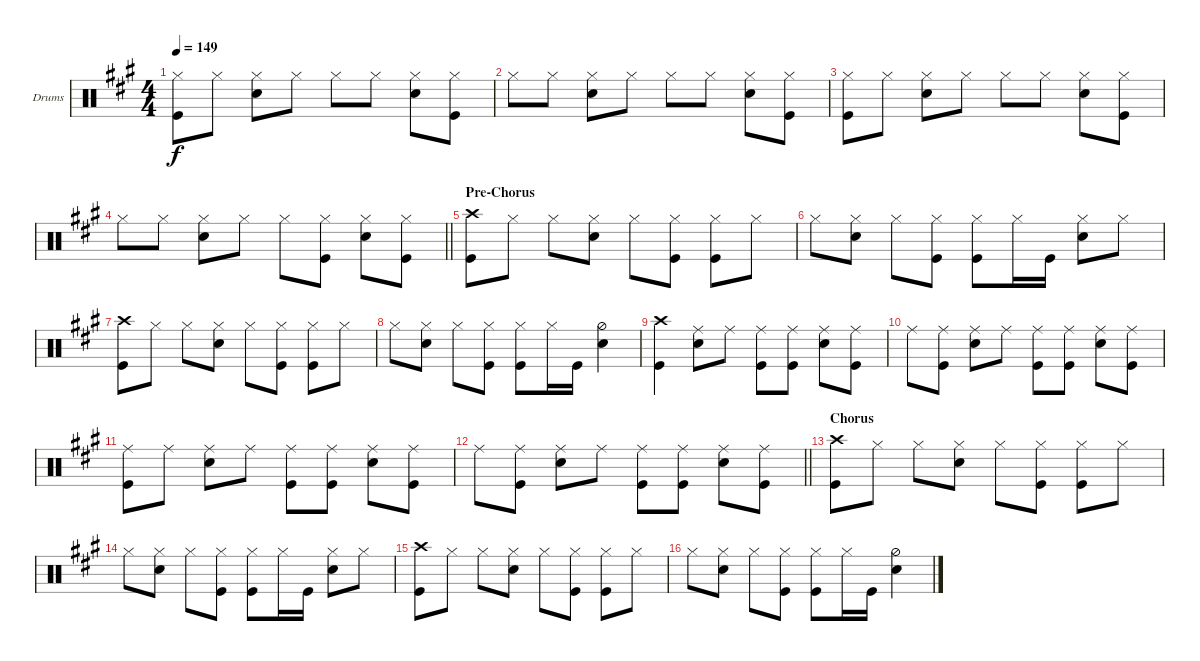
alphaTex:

\defaultSystemsLayout 4
\bracketExtendMode groupsimilarinstruments
\firstSystemTrackNameOrientation horizontal
\otherSystemsTrackNameOrientation horizontal
\track ("Drums" "Drums") {instrument percussion}
\staff {score}
\articulation defaults
\ts (4 4)
\tempo 149
\clef neutral
\ks a
("Kick (hit)" "Hi-Hat (closed)").8{dy f} "Hi-Hat (closed)".8 ("Hi-Hat (closed)" "Snare (hit) 2").8 "Hi-Hat (closed)".8 "Hi-Hat (closed)".8 "Hi-Hat (closed)".8 ("Hi-Hat (closed)" "Snare (hit) 2").8 ("Hi-Hat (closed)" "Kick (hit)").8 |
"Hi-Hat (closed)".8 "Hi-Hat (closed)".8 ("Hi-Hat (closed)" "Snare (hit) 2").8 "Hi-Hat (closed)".8 "Hi-Hat (closed)".8 "Hi-Hat (closed)".8 ("Hi-Hat (closed)" "Snare (hit) 2").8 ("Hi-Hat (closed)" "Kick (hit)").8 |
("Kick (hit)" "Hi-Hat (closed)").8 "Hi-Hat (closed)".8 ("Hi-Hat (closed)" "Snare (hit) 2").8 "Hi-Hat (closed)".8 "Hi-Hat (closed)".8 "Hi-Hat (closed)".8 ("Hi-Hat (closed)" "Snare (hit) 2").8 ("Hi-Hat (closed)" "Kick (hit)").8 |
\barLineRight lightlight "Hi-Hat (closed)".8 "Hi-Hat (closed)".8
("Hi-Hat (closed)" "Snare (hit) 2").8 "Hi-Hat (closed)".8 "Hi-Hat (closed)".8 ("Hi-Hat (closed)" "Kick (hit)").8 ("Hi-Hat (closed)" "Snare (hit) 2").8 ("Hi-Hat (closed)" "Kick (hit)").8 |
\section ("" "Pre-Chorus")
("Kick (hit)" "Crash high (hit)").8 "Hi-Hat (closed)".8 "Hi-Hat (closed)".8 ("Hi-Hat (closed)" "Snare (hit) 2").8 "Hi-Hat (closed)".8 ("Hi-Hat (closed)" "Kick (hit)").8 ("Hi-Hat (closed)" "Kick (hit)").8 "Hi-Hat (closed)".8 |
"Hi-Hat (closed)".8 ("Hi-Hat (closed)" "Snare (hit) 2").8 "Hi-Hat (closed)".8 ("Hi-Hat (closed)" "Kick (hit)").8 ("Hi-Hat (closed)" "Kick (hit)").8 "Hi-Hat (closed)".16 "Kick (hit)".16 ("Hi-Hat (closed)" "Snare (hit) 2").8 "Hi-Hat (closed)".8 |
("Kick (hit)" "Crash high (hit)").8 "Hi-Hat (closed)".8 "Hi-Hat (closed)".8 ("Hi-Hat (closed)" "Snare (hit) 2").8 "Hi-Hat (closed)".8 ("Hi-Hat (closed)" "Kick (hit)").8 ("Hi-Hat (closed)" "Kick (hit)").8 "Hi-Hat (closed)".8 |
"Hi-Hat (closed)".8 ("Hi-Hat (closed)" "Snare (hit) 2").8 "Hi-Hat (closed)".8 ("Hi-Hat (closed)" "Kick (hit)").8 ("Hi-Hat (closed)" "Kick (hit)").8 "Hi-Hat (closed)".16 "Kick (hit)".16 ("Hi-Hat (half)" "Snare (hit) 2").4 |
("Kick (hit)" "Crash high (hit)").4 ("Ride (middle)" "Snare (hit) 2").8 "Ride (middle)".8 ("Ride (middle)" "Kick (hit)").8 ("Ride (middle)" "Kick (hit)").8 ("Ride (middle)" "Snare (hit) 2").8 ("Ride (middle)" "Kick (hit)").8 |
"Ride (middle)".8 ("Ride (middle)" "Kick (hit)").8 ("Ride (middle)" "Snare (hit) 2").8 "Ride (middle)".8 ("Ride (middle)" "Kick (hit)").8 ("Ride (middle)" "Kick (hit)").8 ("Ride (middle)" "Snare (hit) 2").8 ("Ride (middle)" "Kick (hit)").8 |
("Kick (hit)" "Ride (middle)").8 "Ride (middle)".8 ("Ride (middle)" "Snare (hit) 2").8 "Ride (middle)".8 ("Ride (middle)" "Kick (hit)").8 ("Ride (middle)" "Kick (hit)").8 ("Ride (middle)" "Snare (hit) 2").8 ("Ride (middle)" "Kick (hit)").8 |
\barLineRight lightlight "Ride (middle)".8
("Ride (middle)" "Kick (hit)").8 ("Ride (middle)" "Snare (hit) 2").8 "Ride (middle)".8 ("Ride (middle)" "Kick (hit)").8 ("Ride (middle)" "Kick (hit)").8 ("Ride (middle)" "Snare (hit) 2").8 ("Ride (middle)" "Kick (hit)").8 |
\section ("" "Chorus")
("Kick (hit)" "Crash high (hit)").8 "Hi-Hat (closed)".8 "Hi-Hat (closed)".8 ("Hi-Hat (closed)" "Snare (hit) 2").8 "Hi-Hat (closed)".8 ("Hi-Hat (closed)" "Kick (hit)").8 ("Hi-Hat (closed)" "Kick (hit)").8 "Hi-Hat (closed)".8 |
"Hi-Hat (closed)".8 ("Hi-Hat (closed)" "Snare (hit) 2").8 "Hi-Hat (closed)".8 ("Hi-Hat (closed)" "Kick (hit)").8 ("Hi-Hat (closed)" "Kick (hit)").8 "Hi-Hat (closed)".16 "Kick (hit)".16 ("Hi-Hat (closed)" "Snare (hit) 2").8 "Hi-Hat (closed)".8 |
("Kick (hit)" "Crash high (hit)").8 "Hi-Hat (closed)".8 "Hi-Hat (closed)".8 ("Hi-Hat (closed)" "Snare (hit) 2").8 "Hi-Hat (closed)".8 ("Hi-Hat (closed)" "Kick (hit)").8 ("Hi-Hat (closed)" "Kick (hit)").8 "Hi-Hat (closed)".8 |
"Hi-Hat (closed)".8 ("Hi-Hat (closed)" "Snare (hit) 2").8 "Hi-Hat (closed)".8 ("Hi-Hat (closed)" "Kick (hit)").8 ("Hi-Hat (closed)" "Kick (hit)").8 "Hi-Hat (closed)".16 "Kick (hit)".16 ("Hi-Hat (half)" "Snare (hit) 2").4
